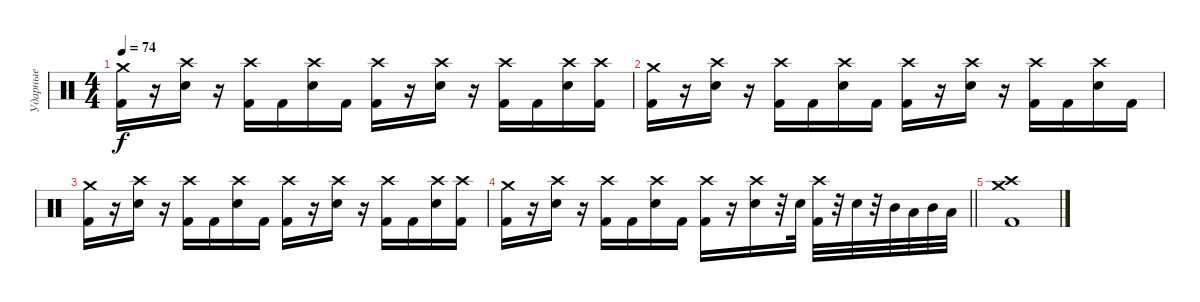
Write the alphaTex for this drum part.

\track ("Ударные" "Ударные") {instrument percussion}
\staff {score}
\articulation defaults
\ts (4 4)
\tempo 74
\clef neutral
\ks c
("Crash medium (hit)" "Kick (hit) 2").16{dy f} r.16 ("Crash high (hit)" "Electric Snare (hit)").16 r.16 ("Crash high (hit)" "Kick (hit) 2").16 "Kick (hit) 2".16 ("Crash high (hit)" "Electric Snare (hit)").16 "Kick (hit) 2".16 ("Crash high (hit)" "Kick (hit) 2").16 r.16 ("Crash high (hit)" "Electric Snare (hit)").16 r.16 ("Crash high (hit)" "Kick (hit) 2").16 "Kick (hit) 2".16 ("Crash high (hit)" "Electric Snare (hit)").16 ("Crash high (hit)" "Kick (hit) 2").16 |
("Crash medium (hit)" "Kick (hit) 2").16 r.16 ("Crash high (hit)" "Electric Snare (hit)").16 r.16 ("Crash high (hit)" "Kick (hit) 2").16 "Kick (hit) 2".16 ("Crash high (hit)" "Electric Snare (hit)").16 "Kick (hit) 2".16 ("Crash high (hit)" "Kick (hit) 2").16 r.16 ("Crash high (hit)" "Electric Snare (hit)").16 r.16 ("Crash high (hit)" "Kick (hit) 2").16 "Kick (hit) 2".16 ("Crash high (hit)" "Electric Snare (hit)").16 "Kick (hit) 2".16 |
("Crash medium (hit)" "Kick (hit) 2").16 r.16 ("Crash high (hit)" "Electric Snare (hit)").16 r.16 ("Crash high (hit)" "Kick (hit) 2").16 "Kick (hit) 2".16 ("Crash high (hit)" "Electric Snare (hit)").16 "Kick (hit) 2".16 ("Crash high (hit)" "Kick (hit) 2").16 r.16 ("Crash high (hit)" "Electric Snare (hit)").16 r.16 ("Crash high (hit)" "Kick (hit) 2").16 "Kick (hit) 2".16 ("Crash high (hit)" "Electric Snare (hit)").16 ("Crash high (hit)" "Kick (hit) 2").16 |
\barLineRight lightlight
("Crash medium (hit)" "Kick (hit) 2").16 r.16 ("Crash high (hit)" "Electric Snare (hit)").16 r.16 ("Crash high (hit)" "Kick (hit) 2").16 "Kick (hit) 2".16 ("Crash high (hit)" "Electric Snare (hit)").16 "Kick (hit) 2".16 ("Crash high (hit)" "Kick (hit) 2").16 r.16 ("Crash high (hit)" "Electric Snare (hit)").16 r.32 "Electric Snare (hit)".32 ("Crash high (hit)" "Kick (hit) 2").32 r.32 "Electric Snare (hit)".32 r.32 "Mid Tom (hit)".32 "Low Tom (hit)".32 "Mid Tom (hit)".32 "Low Tom (hit)".32 |
("Crash medium (hit)" "Crash high (hit)" "Kick (hit) 2").1
